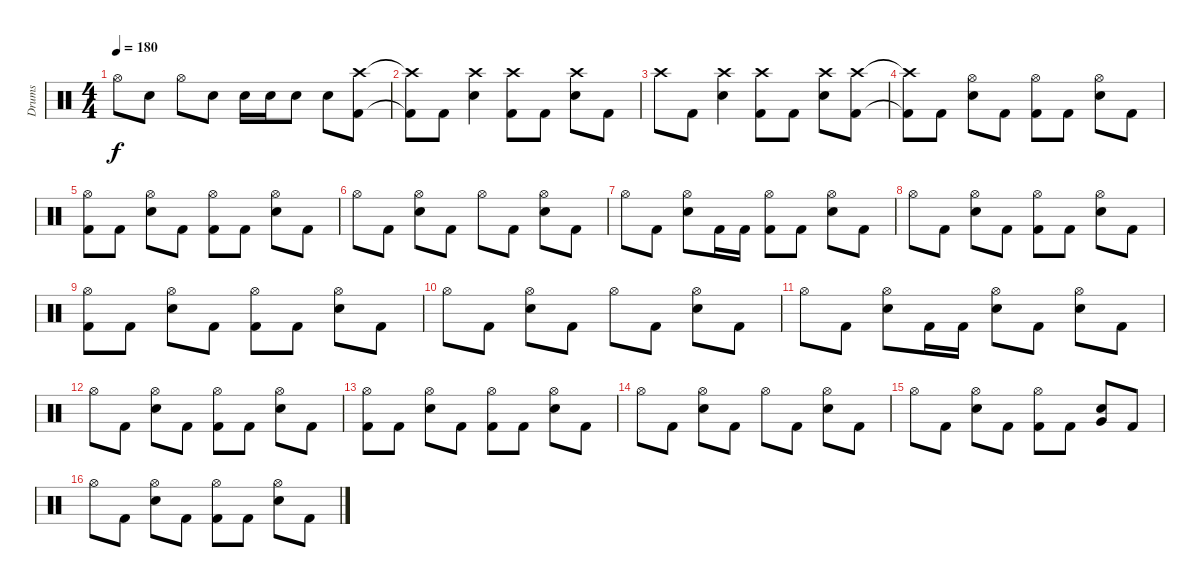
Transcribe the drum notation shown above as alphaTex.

\track ("Drums" "Drums") {instrument percussion}
\staff {score}
\articulation defaults
\ts (4 4)
\tempo 180
\clef neutral
\ks c "Hi-Hat (open)".8{dy f} "Electric Snare (hit)".8 "Hi-Hat (open)".8 "Electric Snare (hit)".8 "Electric Snare (hit)".16 "Electric Snare (hit)".16 "Electric Snare (hit)".8 "Electric Snare (hit)".8
("Crash high (hit)" "Kick (hit) 2").8 |
("Crash high (hit)"{t} "Kick (hit) 2"{t}).8 "Kick (hit) 2".8 ("Crash high (hit)" "Electric Snare (hit)").4 ("Crash high (hit)" "Kick (hit) 2").8 "Kick (hit) 2".8 ("Crash high (hit)" "Electric Snare (hit)").8 "Kick (hit) 2".8 |
"Crash high (hit)".8 "Kick (hit) 2".8 ("Crash high (hit)" "Electric Snare (hit)").4 ("Crash high (hit)" "Kick (hit) 2").8 "Kick (hit) 2".8 ("Crash high (hit)" "Electric Snare (hit)").8 ("Crash high (hit)" "Kick (hit) 2").8 |
("Crash high (hit)"{t} "Kick (hit) 2"{t}).8 "Kick (hit) 2".8 ("Hi-Hat (open)" "Electric Snare (hit)").8 "Kick (hit) 2".8 ("Hi-Hat (open)" "Kick (hit) 2").8 "Kick (hit) 2".8 ("Hi-Hat (open)" "Electric Snare (hit)").8 "Kick (hit) 2".8 |
("Hi-Hat (open)" "Kick (hit) 2").8 "Kick (hit) 2".8 ("Hi-Hat (open)" "Electric Snare (hit)").8 "Kick (hit) 2".8 ("Hi-Hat (open)" "Kick (hit) 2").8 "Kick (hit) 2".8 ("Hi-Hat (open)" "Electric Snare (hit)").8 "Kick (hit) 2".8 |
"Hi-Hat (open)".8 "Kick (hit) 2".8 ("Hi-Hat (open)" "Electric Snare (hit)").8 "Kick (hit) 2".8 "Hi-Hat (open)".8 "Kick (hit) 2".8 ("Hi-Hat (open)" "Electric Snare (hit)").8 "Kick (hit) 2".8 |
"Hi-Hat (open)".8 "Kick (hit) 2".8 ("Hi-Hat (open)" "Electric Snare (hit)").8 "Kick (hit) 2".16 "Kick (hit) 2".16 ("Hi-Hat (open)" "Kick (hit) 2").8 "Kick (hit) 2".8 ("Hi-Hat (open)" "Electric Snare (hit)").8 "Kick (hit) 2".8 |
"Hi-Hat (open)".8 "Kick (hit) 2".8 ("Hi-Hat (open)" "Electric Snare (hit)").8 "Kick (hit) 2".8 ("Hi-Hat (open)" "Kick (hit) 2").8 "Kick (hit) 2".8 ("Hi-Hat (open)" "Electric Snare (hit)").8 "Kick (hit) 2".8 |
("Hi-Hat (open)" "Kick (hit) 2").8 "Kick (hit) 2".8 ("Hi-Hat (open)" "Electric Snare (hit)").8 "Kick (hit) 2".8 ("Hi-Hat (open)" "Kick (hit) 2").8 "Kick (hit) 2".8 ("Hi-Hat (open)" "Electric Snare (hit)").8 "Kick (hit) 2".8 |
"Hi-Hat (open)".8 "Kick (hit) 2".8 ("Hi-Hat (open)" "Electric Snare (hit)").8 "Kick (hit) 2".8 "Hi-Hat (open)".8 "Kick (hit) 2".8 ("Hi-Hat (open)" "Electric Snare (hit)").8 "Kick (hit) 2".8 |
"Hi-Hat (open)".8 "Kick (hit) 2".8 ("Hi-Hat (open)" "Electric Snare (hit)").8 "Kick (hit) 2".16 "Kick (hit) 2".16 ("Hi-Hat (open)" "Electric Snare (hit)").8 "Kick (hit) 2".8 ("Hi-Hat (open)" "Electric Snare (hit)").8 "Kick (hit) 2".8 |
"Hi-Hat (open)".8 "Kick (hit) 2".8 ("Hi-Hat (open)" "Electric Snare (hit)").8 "Kick (hit) 2".8 ("Hi-Hat (open)" "Kick (hit) 2").8 "Kick (hit) 2".8 ("Hi-Hat (open)" "Electric Snare (hit)").8 "Kick (hit) 2".8 |
("Hi-Hat (open)" "Kick (hit) 2").8 "Kick (hit) 2".8 ("Hi-Hat (open)" "Electric Snare (hit)").8 "Kick (hit) 2".8 ("Hi-Hat (open)" "Kick (hit) 2").8 "Kick (hit) 2".8 ("Hi-Hat (open)" "Electric Snare (hit)").8 "Kick (hit) 2".8 |
"Hi-Hat (open)".8 "Kick (hit) 2".8 ("Hi-Hat (open)" "Electric Snare (hit)").8 "Kick (hit) 2".8 "Hi-Hat (open)".8 "Kick (hit) 2".8 ("Hi-Hat (open)" "Electric Snare (hit)").8 "Kick (hit) 2".8 |
"Hi-Hat (open)".8 "Kick (hit) 2".8 ("Hi-Hat (open)" "Electric Snare (hit)").8 "Kick (hit) 2".8 ("Hi-Hat (open)" "Kick (hit) 2").8 "Kick (hit) 2".8 ("Very Low Tom (hit)" "Electric Snare (hit)").8 "Kick (hit) 2".8 |
"Hi-Hat (open)".8 "Kick (hit) 2".8 ("Hi-Hat (open)" "Electric Snare (hit)").8 "Kick (hit) 2".8 ("Hi-Hat (open)" "Kick (hit) 2").8 "Kick (hit) 2".8 ("Hi-Hat (open)" "Electric Snare (hit)").8 "Kick (hit) 2".8
